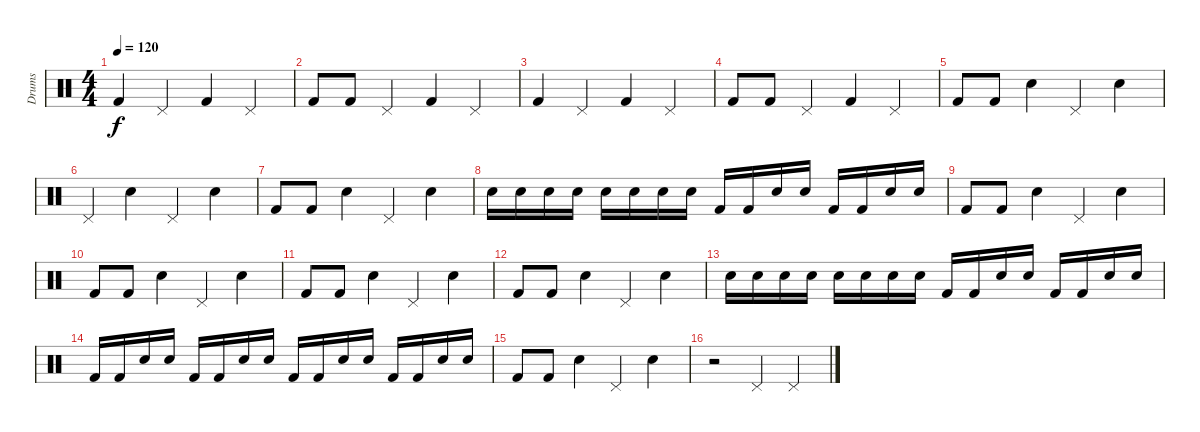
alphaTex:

\track ("Drums" "Drums") {instrument percussion}
\staff {score}
\articulation defaults
\ts (4 4)
\tempo 120
\clef neutral
\ks c "Kick (hit) 2".4{dy f} "Pedal Hi-Hat (hit)".4 "Kick (hit) 2".4 "Pedal Hi-Hat (hit)".4
|
"Kick (hit) 2".8 "Kick (hit) 2".8 "Pedal Hi-Hat (hit)".4 "Kick (hit) 2".4 "Pedal Hi-Hat (hit)".4 |
"Kick (hit) 2".4 "Pedal Hi-Hat (hit)".4 "Kick (hit) 2".4 "Pedal Hi-Hat (hit)".4 |
"Kick (hit) 2".8 "Kick (hit) 2".8 "Pedal Hi-Hat (hit)".4 "Kick (hit) 2".4 "Pedal Hi-Hat (hit)".4 |
"Kick (hit) 2".8 "Kick (hit) 2".8 "Snare (hit) 2".4 "Pedal Hi-Hat (hit)".4 "Snare (hit) 2".4 |
"Pedal Hi-Hat (hit)".4 "Snare (hit) 2".4 "Pedal Hi-Hat (hit)".4 "Snare (hit) 2".4 |
"Kick (hit) 2".8 "Kick (hit) 2".8 "Snare (hit) 2".4 "Pedal Hi-Hat (hit)".4 "Snare (hit) 2".4 |
"Snare (hit) 2".16 "Snare (hit) 2".16 "Snare (hit) 2".16 "Snare (hit) 2".16 "Snare (hit) 2".16 "Snare (hit) 2".16 "Snare (hit) 2".16 "Snare (hit) 2".16 "Kick (hit) 2".16 "Kick (hit) 2".16 "Snare (hit) 2".16 "Snare (hit) 2".16 "Kick (hit) 2".16 "Kick (hit) 2".16 "Snare (hit) 2".16 "Snare (hit) 2".16 |
"Kick (hit) 2".8 "Kick (hit) 2".8 "Snare (hit) 2".4 "Pedal Hi-Hat (hit)".4 "Snare (hit) 2".4 |
"Kick (hit) 2".8 "Kick (hit) 2".8 "Snare (hit) 2".4 "Pedal Hi-Hat (hit)".4 "Snare (hit) 2".4 |
"Kick (hit) 2".8 "Kick (hit) 2".8 "Snare (hit) 2".4 "Pedal Hi-Hat (hit)".4 "Snare (hit) 2".4 |
"Kick (hit) 2".8 "Kick (hit) 2".8 "Snare (hit) 2".4 "Pedal Hi-Hat (hit)".4 "Snare (hit) 2".4 |
"Snare (hit) 2".16 "Snare (hit) 2".16 "Snare (hit) 2".16 "Snare (hit) 2".16 "Snare (hit) 2".16 "Snare (hit) 2".16 "Snare (hit) 2".16 "Snare (hit) 2".16 "Kick (hit) 2".16 "Kick (hit) 2".16 "Snare (hit) 2".16 "Snare (hit) 2".16 "Kick (hit) 2".16 "Kick (hit) 2".16 "Snare (hit) 2".16 "Snare (hit) 2".16 |
"Kick (hit) 2".16 "Kick (hit) 2".16 "Snare (hit) 2".16 "Snare (hit) 2".16 "Kick (hit) 2".16 "Kick (hit) 2".16 "Snare (hit) 2".16 "Snare (hit) 2".16 "Kick (hit) 2".16 "Kick (hit) 2".16 "Snare (hit) 2".16 "Snare (hit) 2".16 "Kick (hit) 2".16 "Kick (hit) 2".16 "Snare (hit) 2".16 "Snare (hit) 2".16 |
"Kick (hit) 2".8 "Kick (hit) 2".8 "Snare (hit) 2".4 "Pedal Hi-Hat (hit)".4 "Snare (hit) 2".4 |
r.2 "Pedal Hi-Hat (hit)".4 "Pedal Hi-Hat (hit)".4
